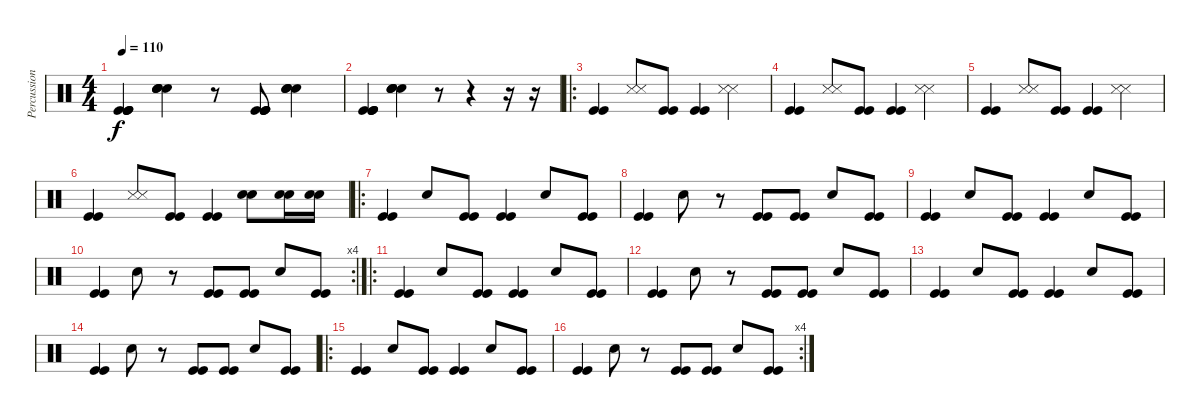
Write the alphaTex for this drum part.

\track ("Percussion" "Percussion") {instrument percussion}
\staff {score}
\articulation defaults
\ts (4 4)
\tempo 110
\clef neutral
\ks c
("Kick (hit)" "Kick (hit)" "Kick (hit)" "Kick (hit)").4{dy f} ("Electric Snare (hit)" "Electric Snare (hit)" "Electric Snare (hit)" "Electric Snare (hit)").4 r.8 ("Kick (hit)" "Kick (hit)" "Kick (hit)" "Kick (hit)").8 ("Electric Snare (hit)" "Electric Snare (hit)" "Electric Snare (hit)" "Electric Snare (hit)").4 |
("Kick (hit)" "Kick (hit)" "Kick (hit)" "Kick (hit)").4 ("Electric Snare (hit)" "Electric Snare (hit)" "Electric Snare (hit)" "Electric Snare (hit)").4 r.8 r.4 r.16 r.16 |
\ro
("Kick (hit)" "Kick (hit)").4 ("Snare (side stick) 3" "Snare (side stick) 3").8 ("Kick (hit)" "Kick (hit)").8 ("Kick (hit)" "Kick (hit)").4 ("Snare (side stick) 3" "Snare (side stick) 3").4 |
("Kick (hit)" "Kick (hit)").4 ("Snare (side stick) 3" "Snare (side stick) 3").8 ("Kick (hit)" "Kick (hit)").8 ("Kick (hit)" "Kick (hit)").4 ("Snare (side stick) 3" "Snare (side stick) 3").4 |
("Kick (hit)" "Kick (hit)").4 ("Snare (side stick) 3" "Snare (side stick) 3").8 ("Kick (hit)" "Kick (hit)").8 ("Kick (hit)" "Kick (hit)").4 ("Snare (side stick) 3" "Snare (side stick) 3").4 |
("Kick (hit)" "Kick (hit)").4 ("Snare (side stick) 3" "Snare (side stick) 3").8 ("Kick (hit)" "Kick (hit)").8 ("Kick (hit)" "Kick (hit)").4 ("Electric Snare (hit)" "Electric Snare (hit)").8 ("Electric Snare (hit)" "Electric Snare (hit)").16 ("Electric Snare (hit)" "Electric Snare (hit)").16 |
\ro
("Kick (hit)" "Kick (hit)").4 "Electric Snare (hit)".8 ("Kick (hit)" "Kick (hit)").8 ("Kick (hit)" "Kick (hit)").4 "Electric Snare (hit)".8 ("Kick (hit)" "Kick (hit)").8 |
("Kick (hit)" "Kick (hit)").4 "Electric Snare (hit)".8 r.8 ("Kick (hit)" "Kick (hit)").8 ("Kick (hit)" "Kick (hit)").8 "Electric Snare (hit)".8 ("Kick (hit)" "Kick (hit)").8 |
("Kick (hit)" "Kick (hit)").4 "Electric Snare (hit)".8 ("Kick (hit)" "Kick (hit)").8 ("Kick (hit)" "Kick (hit)").4 "Electric Snare (hit)".8 ("Kick (hit)" "Kick (hit)").8 |
\rc 4
("Kick (hit)" "Kick (hit)").4 "Electric Snare (hit)".8 r.8 ("Kick (hit)" "Kick (hit)").8 ("Kick (hit)" "Kick (hit)").8 "Electric Snare (hit)".8 ("Kick (hit)" "Kick (hit)").8 |
\ro
("Kick (hit)" "Kick (hit)").4 "Electric Snare (hit)".8 ("Kick (hit)" "Kick (hit)").8 ("Kick (hit)" "Kick (hit)").4 "Electric Snare (hit)".8 ("Kick (hit)" "Kick (hit)").8 |
("Kick (hit)" "Kick (hit)").4 "Electric Snare (hit)".8 r.8 ("Kick (hit)" "Kick (hit)").8 ("Kick (hit)" "Kick (hit)").8 "Electric Snare (hit)".8 ("Kick (hit)" "Kick (hit)").8 |
("Kick (hit)" "Kick (hit)").4 "Electric Snare (hit)".8 ("Kick (hit)" "Kick (hit)").8 ("Kick (hit)" "Kick (hit)").4 "Electric Snare (hit)".8 ("Kick (hit)" "Kick (hit)").8 |
("Kick (hit)" "Kick (hit)").4 "Electric Snare (hit)".8 r.8 ("Kick (hit)" "Kick (hit)").8 ("Kick (hit)" "Kick (hit)").8 "Electric Snare (hit)".8 ("Kick (hit)" "Kick (hit)").8 |
\ro
("Kick (hit)" "Kick (hit)").4 "Electric Snare (hit)".8 ("Kick (hit)" "Kick (hit)").8 ("Kick (hit)" "Kick (hit)").4 "Electric Snare (hit)".8 ("Kick (hit)" "Kick (hit)").8 |
\rc 4
("Kick (hit)" "Kick (hit)").4 "Electric Snare (hit)".8 r.8 ("Kick (hit)" "Kick (hit)").8 ("Kick (hit)" "Kick (hit)").8 "Electric Snare (hit)".8 ("Kick (hit)" "Kick (hit)").8
